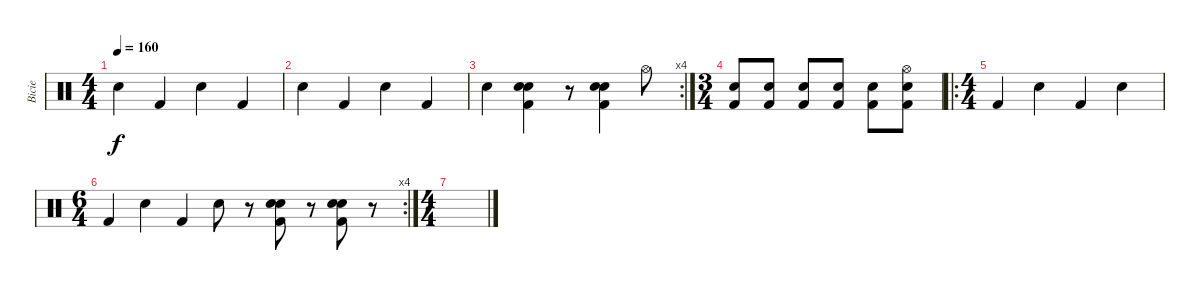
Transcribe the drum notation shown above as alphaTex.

\track ("Bicie" "Bicie") {instrument percussion}
\staff {score}
\articulation defaults
\ts (4 4)
\tempo 160
\clef neutral
\ks c "Snare (hit) 2".4{dy f} "Kick (hit) 2".4 "Snare (hit) 2".4 "Kick (hit) 2".4
|
"Snare (hit) 2".4 "Kick (hit) 2".4 "Snare (hit) 2".4 "Kick (hit) 2".4 |
\rc 4 "Snare (hit) 2".4
("Electric Snare (hit)" "Snare (hit) 2" "Kick (hit) 2").4 r.8 ("Electric Snare (hit)" "Snare (hit) 2" "Kick (hit) 2").4 "Hi-Hat (open)".8 |
\ts (3 4)
("Kick (hit) 2" "Snare (hit) 2").8 ("Kick (hit) 2" "Snare (hit) 2").8 ("Kick (hit) 2" "Snare (hit) 2").8 ("Kick (hit) 2" "Snare (hit) 2").8 ("Kick (hit) 2" "Snare (hit) 2").8 ("Hi-Hat (open)" "Kick (hit) 2" "Snare (hit) 2").8 |
\ro
\ts (4 4)
"Kick (hit) 2".4 "Snare (hit) 2".4 "Kick (hit) 2".4 "Snare (hit) 2".4 |
\rc 4
\ts (6 4)
"Kick (hit) 2".4 "Snare (hit) 2".4 "Kick (hit) 2".4 "Snare (hit) 2".8 r.8 ("Electric Snare (hit)" "Snare (hit) 2" "Kick (hit) 2").8 r.8 ("Electric Snare (hit)" "Snare (hit) 2" "Kick (hit) 2").8 r.8 |
\ts (4 4)
